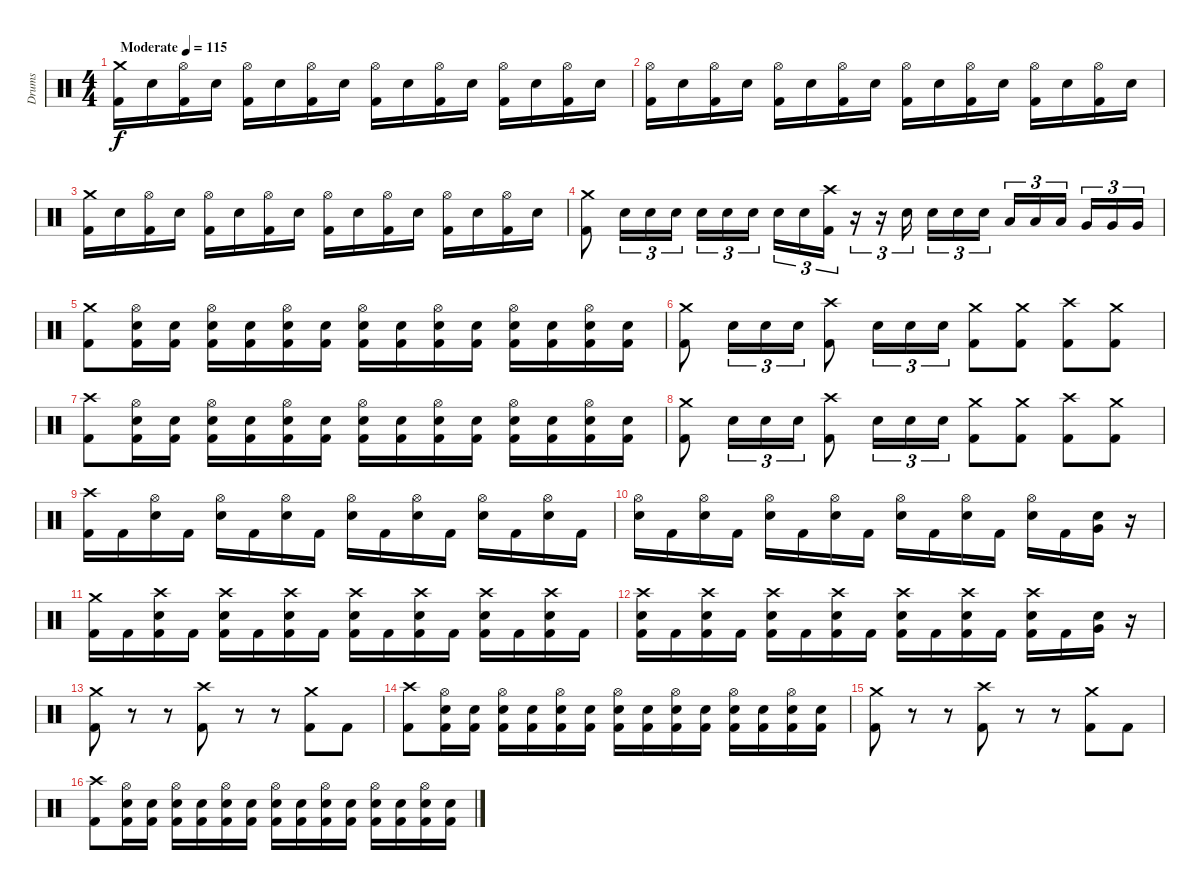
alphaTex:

\track ("Drums" "Drums") {instrument percussion}
\staff {score}
\articulation defaults
\ts (4 4)
\tempo (115 "Moderate")
\clef neutral
\ks c
("Crash medium (hit)" "Kick (hit) 2").16{dy f} "Snare (hit) 2".16 ("Hi-Hat (open)" "Kick (hit) 2").16 "Snare (hit) 2".16 ("Hi-Hat (open)" "Kick (hit) 2").16 "Snare (hit) 2".16 ("Hi-Hat (open)" "Kick (hit) 2").16 "Snare (hit) 2".16 ("Hi-Hat (open)" "Kick (hit) 2").16 "Snare (hit) 2".16 ("Hi-Hat (open)" "Kick (hit) 2").16 "Snare (hit) 2".16 ("Hi-Hat (open)" "Kick (hit) 2").16 "Snare (hit) 2".16 ("Hi-Hat (open)" "Kick (hit) 2").16 "Snare (hit) 2".16 |
("Hi-Hat (open)" "Kick (hit) 2").16 "Snare (hit) 2".16 ("Hi-Hat (open)" "Kick (hit) 2").16 "Snare (hit) 2".16 ("Hi-Hat (open)" "Kick (hit) 2").16 "Snare (hit) 2".16 ("Hi-Hat (open)" "Kick (hit) 2").16 "Snare (hit) 2".16 ("Hi-Hat (open)" "Kick (hit) 2").16 "Snare (hit) 2".16 ("Hi-Hat (open)" "Kick (hit) 2").16 "Snare (hit) 2".16 ("Hi-Hat (open)" "Kick (hit) 2").16 "Snare (hit) 2".16 ("Hi-Hat (open)" "Kick (hit) 2").16 "Snare (hit) 2".16 |
("Crash medium (hit)" "Kick (hit) 2").16 "Snare (hit) 2".16 ("Hi-Hat (open)" "Kick (hit) 2").16 "Snare (hit) 2".16 ("Hi-Hat (open)" "Kick (hit) 2").16 "Snare (hit) 2".16 ("Hi-Hat (open)" "Kick (hit) 2").16 "Snare (hit) 2".16 ("Hi-Hat (open)" "Kick (hit) 2").16 "Snare (hit) 2".16 ("Hi-Hat (open)" "Kick (hit) 2").16 "Snare (hit) 2".16 ("Hi-Hat (open)" "Kick (hit) 2").16 "Snare (hit) 2".16 ("Hi-Hat (open)" "Kick (hit) 2").16 "Snare (hit) 2".16 |
("Crash medium (hit)" "Kick (hit) 2").8 "Snare (hit) 2".16{tu (3 2)} "Snare (hit) 2".16{tu (3 2)} "Snare (hit) 2".16{tu (3 2)} "Snare (hit) 2".16{tu (3 2)} "Snare (hit) 2".16{tu (3 2)} "Snare (hit) 2".16{tu (3 2) beam splitsecondary} "Snare (hit) 2".16{tu (3 2)} "Snare (hit) 2".16{tu (3 2)} ("Crash high (hit)" "Kick (hit) 2").16{tu (3 2)} r.16{tu (3 2)} r.16{tu (3 2)} "Snare (hit) 2".16{tu (3 2) beam splitsecondary} "Snare (hit) 2".16{tu (3 2)} "Snare (hit) 2".16{tu (3 2)} "Snare (hit) 2".16{tu (3 2)} "Low Tom (hit)".16{tu (3 2)} "Low Tom (hit)".16{tu (3 2)} "Low Tom (hit)".16{tu (3 2) beam splitsecondary} "Very Low Tom (hit)".16{tu (3 2)} "Very Low Tom (hit)".16{tu (3 2)} "Very Low Tom (hit)".16{tu (3 2)} |
("Crash medium (hit)" "Kick (hit) 2").8 ("Hi-Hat (open)" "Snare (hit) 2" "Kick (hit) 2").16 ("Snare (hit) 2" "Kick (hit) 2").16 ("Hi-Hat (open)" "Snare (hit) 2" "Kick (hit) 2").16 ("Snare (hit) 2" "Kick (hit) 2").16 ("Hi-Hat (open)" "Snare (hit) 2" "Kick (hit) 2").16 ("Snare (hit) 2" "Kick (hit) 2").16 ("Hi-Hat (open)" "Snare (hit) 2" "Kick (hit) 2").16 ("Snare (hit) 2" "Kick (hit) 2").16 ("Hi-Hat (open)" "Snare (hit) 2" "Kick (hit) 2").16 ("Snare (hit) 2" "Kick (hit) 2").16 ("Hi-Hat (open)" "Snare (hit) 2" "Kick (hit) 2").16 ("Snare (hit) 2" "Kick (hit) 2").16 ("Hi-Hat (open)" "Snare (hit) 2" "Kick (hit) 2").16 ("Snare (hit) 2" "Kick (hit) 2").16 |
("Crash medium (hit)" "Kick (hit) 2").8 "Snare (hit) 2".16{tu (3 2)} "Snare (hit) 2".16{tu (3 2)} "Snare (hit) 2".16{tu (3 2)} ("Crash high (hit)" "Kick (hit) 2").8 "Snare (hit) 2".16{tu (3 2)} "Snare (hit) 2".16{tu (3 2)} "Snare (hit) 2".16{tu (3 2)} ("Crash medium (hit)" "Kick (hit) 2").8 ("Crash medium (hit)" "Kick (hit) 2").8 ("Crash high (hit)" "Kick (hit) 2").8 ("Crash medium (hit)" "Kick (hit) 2").8 |
("Crash high (hit)" "Kick (hit) 2").8 ("Hi-Hat (open)" "Snare (hit) 2" "Kick (hit) 2").16 ("Snare (hit) 2" "Kick (hit) 2").16 ("Hi-Hat (open)" "Snare (hit) 2" "Kick (hit) 2").16 ("Snare (hit) 2" "Kick (hit) 2").16 ("Hi-Hat (open)" "Snare (hit) 2" "Kick (hit) 2").16 ("Snare (hit) 2" "Kick (hit) 2").16 ("Hi-Hat (open)" "Snare (hit) 2" "Kick (hit) 2").16 ("Snare (hit) 2" "Kick (hit) 2").16 ("Hi-Hat (open)" "Snare (hit) 2" "Kick (hit) 2").16 ("Snare (hit) 2" "Kick (hit) 2").16 ("Hi-Hat (open)" "Snare (hit) 2" "Kick (hit) 2").16 ("Snare (hit) 2" "Kick (hit) 2").16 ("Hi-Hat (open)" "Snare (hit) 2" "Kick (hit) 2").16 ("Snare (hit) 2" "Kick (hit) 2").16 |
("Crash medium (hit)" "Kick (hit) 2").8 "Snare (hit) 2".16{tu (3 2)} "Snare (hit) 2".16{tu (3 2)} "Snare (hit) 2".16{tu (3 2)} ("Crash high (hit)" "Kick (hit) 2").8 "Snare (hit) 2".16{tu (3 2)} "Snare (hit) 2".16{tu (3 2)} "Snare (hit) 2".16{tu (3 2)} ("Crash medium (hit)" "Kick (hit) 2").8 ("Crash medium (hit)" "Kick (hit) 2").8 ("Crash high (hit)" "Kick (hit) 2").8 ("Crash medium (hit)" "Kick (hit) 2").8 |
("Crash high (hit)" "Kick (hit) 2").16 "Kick (hit) 2".16 ("Hi-Hat (open)" "Snare (hit) 2").16 "Kick (hit) 2".16 ("Hi-Hat (open)" "Snare (hit) 2").16 "Kick (hit) 2".16 ("Hi-Hat (open)" "Snare (hit) 2").16 "Kick (hit) 2".16 ("Hi-Hat (open)" "Snare (hit) 2").16 "Kick (hit) 2".16 ("Hi-Hat (open)" "Snare (hit) 2").16 "Kick (hit) 2".16 ("Hi-Hat (open)" "Snare (hit) 2").16 "Kick (hit) 2".16 ("Hi-Hat (open)" "Snare (hit) 2").16 "Kick (hit) 2".16 |
("Hi-Hat (open)" "Snare (hit) 2").16 "Kick (hit) 2".16 ("Hi-Hat (open)" "Snare (hit) 2").16 "Kick (hit) 2".16 ("Hi-Hat (open)" "Snare (hit) 2").16 "Kick (hit) 2".16 ("Hi-Hat (open)" "Snare (hit) 2").16 "Kick (hit) 2".16 ("Hi-Hat (open)" "Snare (hit) 2").16 "Kick (hit) 2".16 ("Hi-Hat (open)" "Snare (hit) 2").16 "Kick (hit) 2".16 ("Hi-Hat (open)" "Snare (hit) 2").16 "Kick (hit) 2".16 ("Very Low Tom (hit)" "Snare (hit) 2").16 r.16 |
("Crash medium (hit)" "Kick (hit) 2").16 "Kick (hit) 2".16 ("Crash high (hit)" "Snare (hit) 2" "Kick (hit) 2").16 "Kick (hit) 2".16 ("Crash high (hit)" "Snare (hit) 2" "Kick (hit) 2").16 "Kick (hit) 2".16 ("Crash high (hit)" "Snare (hit) 2" "Kick (hit) 2").16 "Kick (hit) 2".16 ("Crash high (hit)" "Snare (hit) 2" "Kick (hit) 2").16 "Kick (hit) 2".16 ("Crash high (hit)" "Snare (hit) 2" "Kick (hit) 2").16 "Kick (hit) 2".16 ("Crash high (hit)" "Snare (hit) 2" "Kick (hit) 2").16 "Kick (hit) 2".16 ("Crash high (hit)" "Snare (hit) 2" "Kick (hit) 2").16 "Kick (hit) 2".16 |
("Crash high (hit)" "Snare (hit) 2" "Kick (hit) 2").16 "Kick (hit) 2".16 ("Crash high (hit)" "Snare (hit) 2" "Kick (hit) 2").16 "Kick (hit) 2".16 ("Crash high (hit)" "Snare (hit) 2" "Kick (hit) 2").16 "Kick (hit) 2".16 ("Crash high (hit)" "Snare (hit) 2" "Kick (hit) 2").16 "Kick (hit) 2".16 ("Crash high (hit)" "Snare (hit) 2" "Kick (hit) 2").16 "Kick (hit) 2".16 ("Crash high (hit)" "Snare (hit) 2" "Kick (hit) 2").16 "Kick (hit) 2".16 ("Crash high (hit)" "Snare (hit) 2" "Kick (hit) 2").16 "Kick (hit) 2".16 ("Very Low Tom (hit)" "Snare (hit) 2").16 r.16 |
("Crash medium (hit)" "Kick (hit) 2").8 r.8 r.8 ("Crash high (hit)" "Kick (hit) 2").8 r.8 r.8 ("Crash medium (hit)" "Kick (hit) 2").8 "Kick (hit) 2".8 |
("Crash high (hit)" "Kick (hit) 2").8 ("Hi-Hat (open)" "Snare (hit) 2" "Kick (hit) 2").16 ("Snare (hit) 2" "Kick (hit) 2").16 ("Hi-Hat (open)" "Snare (hit) 2" "Kick (hit) 2").16 ("Snare (hit) 2" "Kick (hit) 2").16 ("Hi-Hat (open)" "Snare (hit) 2" "Kick (hit) 2").16 ("Snare (hit) 2" "Kick (hit) 2").16 ("Hi-Hat (open)" "Snare (hit) 2" "Kick (hit) 2").16 ("Snare (hit) 2" "Kick (hit) 2").16 ("Hi-Hat (open)" "Snare (hit) 2" "Kick (hit) 2").16 ("Snare (hit) 2" "Kick (hit) 2").16 ("Hi-Hat (open)" "Snare (hit) 2" "Kick (hit) 2").16 ("Snare (hit) 2" "Kick (hit) 2").16 ("Hi-Hat (open)" "Snare (hit) 2" "Kick (hit) 2").16 ("Snare (hit) 2" "Kick (hit) 2").16 |
("Crash medium (hit)" "Kick (hit) 2").8 r.8 r.8 ("Crash high (hit)" "Kick (hit) 2").8 r.8 r.8 ("Crash medium (hit)" "Kick (hit) 2").8 "Kick (hit) 2".8 |
("Crash high (hit)" "Kick (hit) 2").8 ("Hi-Hat (open)" "Snare (hit) 2" "Kick (hit) 2").16 ("Snare (hit) 2" "Kick (hit) 2").16 ("Hi-Hat (open)" "Snare (hit) 2" "Kick (hit) 2").16 ("Snare (hit) 2" "Kick (hit) 2").16 ("Hi-Hat (open)" "Snare (hit) 2" "Kick (hit) 2").16 ("Snare (hit) 2" "Kick (hit) 2").16 ("Hi-Hat (open)" "Snare (hit) 2" "Kick (hit) 2").16 ("Snare (hit) 2" "Kick (hit) 2").16 ("Hi-Hat (open)" "Snare (hit) 2" "Kick (hit) 2").16 ("Snare (hit) 2" "Kick (hit) 2").16 ("Hi-Hat (open)" "Snare (hit) 2" "Kick (hit) 2").16 ("Snare (hit) 2" "Kick (hit) 2").16 ("Hi-Hat (open)" "Snare (hit) 2" "Kick (hit) 2").16 ("Snare (hit) 2" "Kick (hit) 2").16
